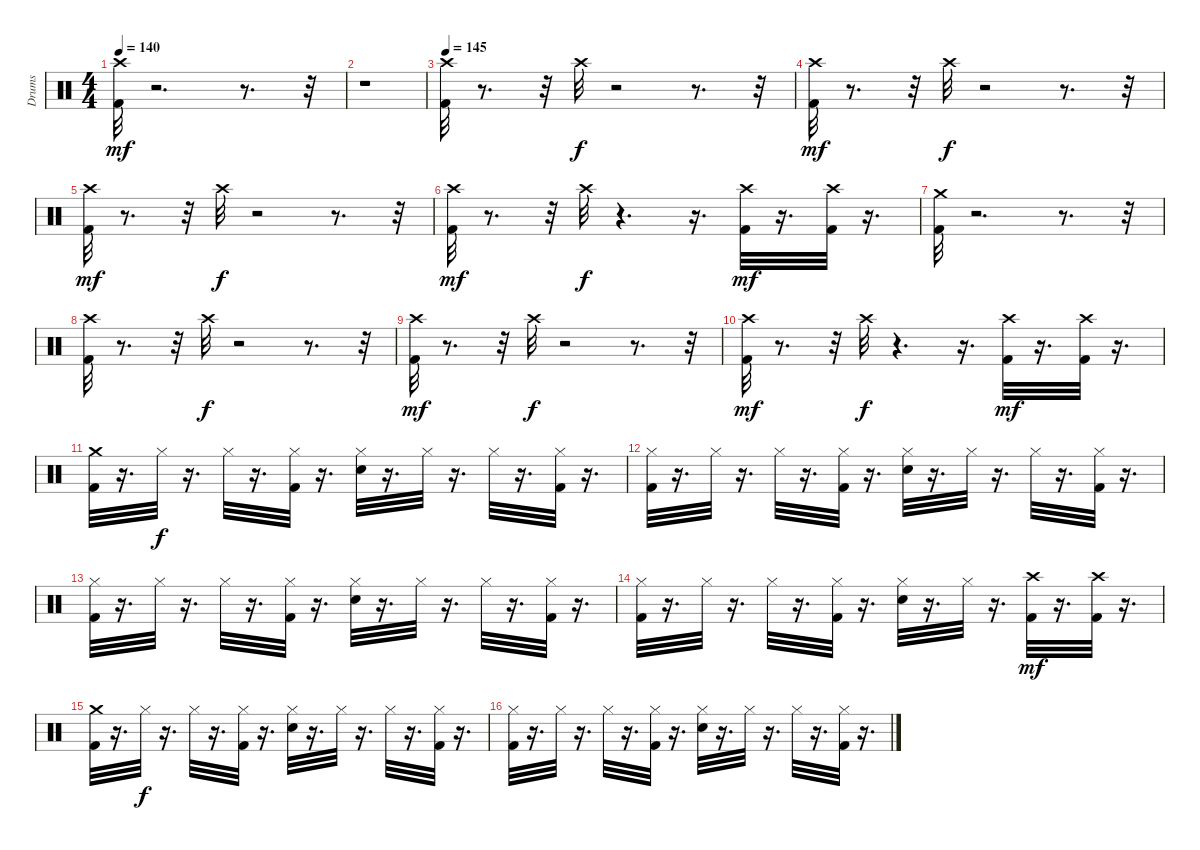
\track ("Drums" "Drums") {instrument percussion}
\staff {score}
\articulation defaults
\ts (4 4)
\tempo 140
\clef neutral
\ks c
("Kick (hit) 2" "Crash high (hit)").32{dy mf} r.2{d} r.8{d} r.32 |
r.1 |
\tempo 145
("Kick (hit) 2" "Crash high (hit)").32 r.8{d} r.32 "Crash high (hit)".32{dy f} r.2 r.8{d} r.32 |
("Kick (hit) 2" "Crash high (hit)").32{dy mf} r.8{d} r.32 "Crash high (hit)".32{dy f} r.2 r.8{d} r.32 |
("Kick (hit) 2" "Crash high (hit)").32{dy mf} r.8{d} r.32 "Crash high (hit)".32{dy f} r.2 r.8{d} r.32 |
("Kick (hit) 2" "Crash high (hit)").32{dy mf} r.8{d} r.32 "Crash high (hit)".32{dy f} r.4{d} r.16{d} ("Kick (hit) 2" "Crash high (hit)").32{dy mf} r.16{d} ("Kick (hit) 2" "Crash high (hit)").32 r.16{d} |
("Kick (hit) 2" "Crash medium (hit)").32 r.2{d} r.8{d} r.32 |
("Kick (hit) 2" "Crash high (hit)").32 r.8{d} r.32 "Crash high (hit)".32{dy f} r.2 r.8{d} r.32 |
("Kick (hit) 2" "Crash high (hit)").32{dy mf} r.8{d} r.32 "Crash high (hit)".32{dy f} r.2 r.8{d} r.32 |
("Kick (hit) 2" "Crash high (hit)").32{dy mf} r.8{d} r.32 "Crash high (hit)".32{dy f} r.4{d} r.16{d} ("Kick (hit) 2" "Crash high (hit)").32{dy mf} r.16{d} ("Kick (hit) 2" "Crash high (hit)").32 r.16{d} |
("Kick (hit) 2" "Crash medium (hit)").32 r.16{d} "Hi-Hat (closed)".32{dy f} r.16{d} "Hi-Hat (closed)".32 r.16{d} ("Kick (hit) 2" "Hi-Hat (closed)").32 r.16{d} ("Snare (hit) 2" "Hi-Hat (closed)").32 r.16{d} "Hi-Hat (closed)".32 r.16{d} "Hi-Hat (closed)".32 r.16{d} ("Kick (hit) 2" "Hi-Hat (closed)").32 r.16{d} |
("Kick (hit) 2" "Hi-Hat (closed)").32 r.16{d} "Hi-Hat (closed)".32 r.16{d} "Hi-Hat (closed)".32 r.16{d} ("Kick (hit) 2" "Hi-Hat (closed)").32 r.16{d} ("Snare (hit) 2" "Hi-Hat (closed)").32 r.16{d} "Hi-Hat (closed)".32 r.16{d} "Hi-Hat (closed)".32 r.16{d} ("Kick (hit) 2" "Hi-Hat (closed)").32 r.16{d} |
("Kick (hit) 2" "Hi-Hat (closed)").32 r.16{d} "Hi-Hat (closed)".32 r.16{d} "Hi-Hat (closed)".32 r.16{d} ("Kick (hit) 2" "Hi-Hat (closed)").32 r.16{d} ("Snare (hit) 2" "Hi-Hat (closed)").32 r.16{d} "Hi-Hat (closed)".32 r.16{d} "Hi-Hat (closed)".32 r.16{d} ("Kick (hit) 2" "Hi-Hat (closed)").32 r.16{d} |
("Kick (hit) 2" "Hi-Hat (closed)").32 r.16{d} "Hi-Hat (closed)".32 r.16{d} "Hi-Hat (closed)".32 r.16{d} ("Kick (hit) 2" "Hi-Hat (closed)").32 r.16{d} ("Snare (hit) 2" "Hi-Hat (closed)").32 r.16{d} "Hi-Hat (closed)".32 r.16{d} ("Kick (hit) 2" "Crash high (hit)").32{dy mf} r.16{d} ("Kick (hit) 2" "Crash high (hit)").32 r.16{d} |
("Kick (hit) 2" "Crash medium (hit)").32 r.16{d} "Hi-Hat (closed)".32{dy f} r.16{d} "Hi-Hat (closed)".32 r.16{d} ("Kick (hit) 2" "Hi-Hat (closed)").32 r.16{d} ("Snare (hit) 2" "Hi-Hat (closed)").32 r.16{d} "Hi-Hat (closed)".32 r.16{d} "Hi-Hat (closed)".32 r.16{d} ("Kick (hit) 2" "Hi-Hat (closed)").32 r.16{d} |
("Kick (hit) 2" "Hi-Hat (closed)").32 r.16{d} "Hi-Hat (closed)".32 r.16{d} "Hi-Hat (closed)".32 r.16{d} ("Kick (hit) 2" "Hi-Hat (closed)").32 r.16{d} ("Snare (hit) 2" "Hi-Hat (closed)").32 r.16{d} "Hi-Hat (closed)".32 r.16{d} "Hi-Hat (closed)".32 r.16{d} ("Kick (hit) 2" "Hi-Hat (closed)").32 r.16{d}
